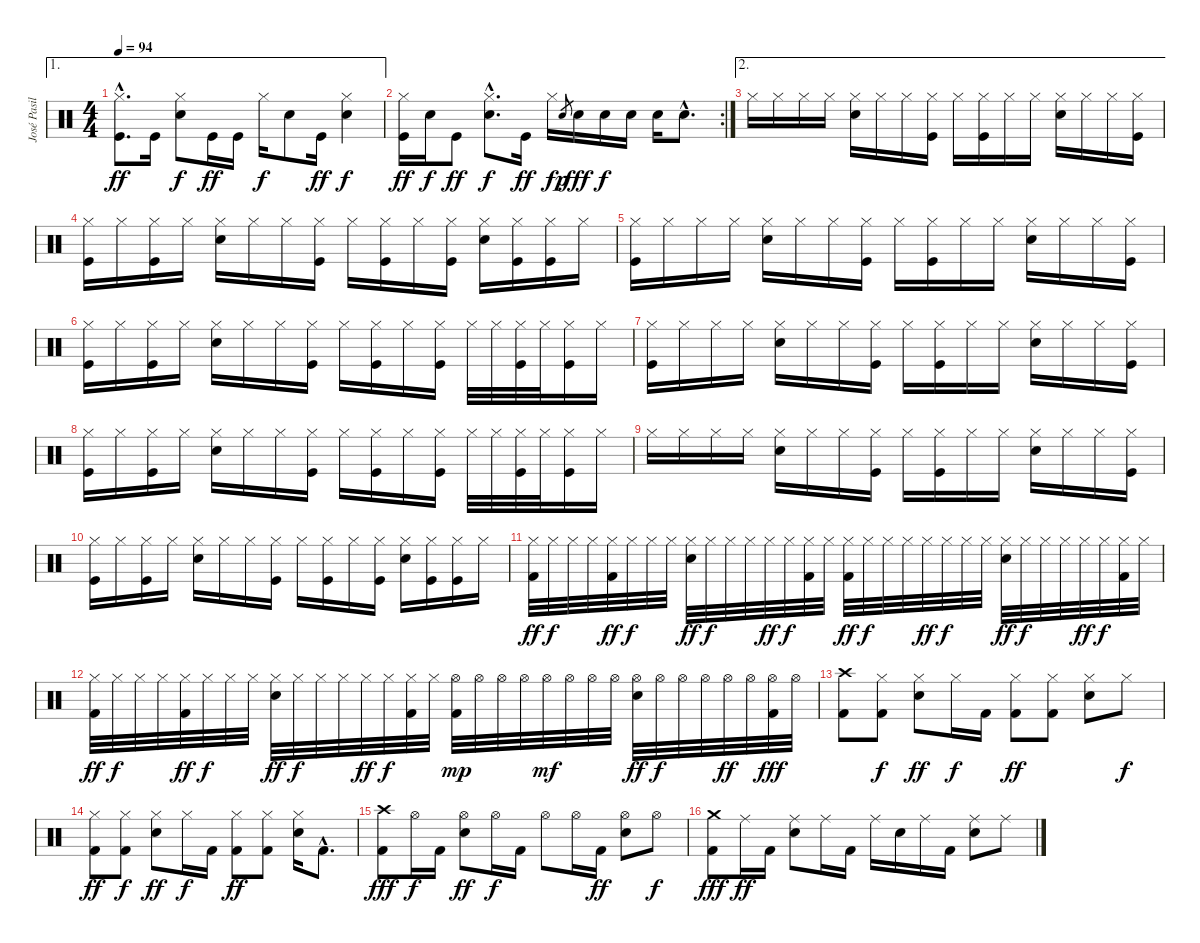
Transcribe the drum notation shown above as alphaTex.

\track ("José Pasillas II : Drums" "José Pasil") {instrument percussion}
\staff {score}
\articulation defaults
\ae 1
\ts (4 4)
\tempo 94
\clef neutral
\ks c
("Hi-Hat (closed)"{hac} "Kick (hit)"{hac}).8{d dy ff} "Kick (hit)".16 ("Hi-Hat (closed)" "Snare (hit) 2").8{dy f} "Kick (hit)".16{dy ff} "Kick (hit)".16 "Hi-Hat (closed)".16{dy f} "Snare (hit) 2".8 "Kick (hit)".16{dy ff} ("Hi-Hat (closed)" "Snare (hit) 2").4{dy f} |
\rc 2
("Hi-Hat (closed)" "Kick (hit)").16{dy ff} "Snare (hit) 2".16{dy f} "Kick (hit)".8{dy ff} ("Hi-Hat (closed)"{hac} "Snare (hit) 2"{hac}).8{d dy f} "Kick (hit)".16{dy ff} "Hi-Hat (closed)".16{dy f} "Electric Snare (hit)".8{gr dy p} "Electric Snare (hit)".16{dy fff} "Electric Snare (hit)".16{dy f} "Electric Snare (hit)".16 "Electric Snare (hit)".16 "Electric Snare (hit)"{hac}.8{d} |
\ae 2 "Hi-Hat (closed)".16 "Hi-Hat (closed)".16 "Hi-Hat (closed)".16 "Hi-Hat (closed)".16
("Hi-Hat (closed)" "Snare (hit) 2").16 "Hi-Hat (closed)".16 "Hi-Hat (closed)".16 ("Hi-Hat (closed)" "Kick (hit)").16 "Hi-Hat (closed)".16 ("Hi-Hat (closed)" "Kick (hit)").16 "Hi-Hat (closed)".16 "Hi-Hat (closed)".16 ("Hi-Hat (closed)" "Snare (hit) 2").16 "Hi-Hat (closed)".16 "Hi-Hat (closed)".16 ("Hi-Hat (closed)" "Kick (hit)").16 |
("Hi-Hat (closed)" "Kick (hit)").16 "Hi-Hat (closed)".16 ("Hi-Hat (closed)" "Kick (hit)").16 "Hi-Hat (closed)".16 ("Hi-Hat (closed)" "Snare (hit) 2").16 "Hi-Hat (closed)".16 "Hi-Hat (closed)".16 ("Hi-Hat (closed)" "Kick (hit)").16 "Hi-Hat (closed)".16 ("Hi-Hat (closed)" "Kick (hit)").16 "Hi-Hat (closed)".16 ("Hi-Hat (closed)" "Kick (hit)").16 ("Hi-Hat (closed)" "Snare (hit) 2").16 ("Hi-Hat (closed)" "Kick (hit)").16 ("Hi-Hat (closed)" "Kick (hit)").16 "Hi-Hat (closed)".16 |
("Hi-Hat (closed)" "Kick (hit)").16 "Hi-Hat (closed)".16 "Hi-Hat (closed)".16 "Hi-Hat (closed)".16 ("Hi-Hat (closed)" "Snare (hit) 2").16 "Hi-Hat (closed)".16 "Hi-Hat (closed)".16 ("Hi-Hat (closed)" "Kick (hit)").16 "Hi-Hat (closed)".16 ("Hi-Hat (closed)" "Kick (hit)").16 "Hi-Hat (closed)".16 "Hi-Hat (closed)".16 ("Hi-Hat (closed)" "Snare (hit) 2").16 "Hi-Hat (closed)".16 "Hi-Hat (closed)".16 ("Hi-Hat (closed)" "Kick (hit)").16 |
("Hi-Hat (closed)" "Kick (hit)").16 "Hi-Hat (closed)".16 ("Hi-Hat (closed)" "Kick (hit)").16 "Hi-Hat (closed)".16 ("Hi-Hat (closed)" "Snare (hit) 2").16 "Hi-Hat (closed)".16 "Hi-Hat (closed)".16 ("Hi-Hat (closed)" "Kick (hit)").16 "Hi-Hat (closed)".16 ("Hi-Hat (closed)" "Kick (hit)").16 "Hi-Hat (closed)".16 ("Hi-Hat (closed)" "Kick (hit)").16 "Hi-Hat (closed)".32 "Hi-Hat (closed)".32 ("Hi-Hat (closed)" "Kick (hit)").32 "Hi-Hat (closed)".32 ("Hi-Hat (closed)" "Kick (hit)").16 "Hi-Hat (closed)".16 |
("Hi-Hat (closed)" "Kick (hit)").16 "Hi-Hat (closed)".16 "Hi-Hat (closed)".16 "Hi-Hat (closed)".16 ("Hi-Hat (closed)" "Snare (hit) 2").16 "Hi-Hat (closed)".16 "Hi-Hat (closed)".16 ("Hi-Hat (closed)" "Kick (hit)").16 "Hi-Hat (closed)".16 ("Hi-Hat (closed)" "Kick (hit)").16 "Hi-Hat (closed)".16 "Hi-Hat (closed)".16 ("Hi-Hat (closed)" "Snare (hit) 2").16 "Hi-Hat (closed)".16 "Hi-Hat (closed)".16 ("Hi-Hat (closed)" "Kick (hit)").16 |
("Hi-Hat (closed)" "Kick (hit)").16 "Hi-Hat (closed)".16 ("Hi-Hat (closed)" "Kick (hit)").16 "Hi-Hat (closed)".16 ("Hi-Hat (closed)" "Snare (hit) 2").16 "Hi-Hat (closed)".16 "Hi-Hat (closed)".16 ("Hi-Hat (closed)" "Kick (hit)").16 "Hi-Hat (closed)".16 ("Hi-Hat (closed)" "Kick (hit)").16 "Hi-Hat (closed)".16 ("Hi-Hat (closed)" "Kick (hit)").16 "Hi-Hat (closed)".32 "Hi-Hat (closed)".32 ("Hi-Hat (closed)" "Kick (hit)").32 "Hi-Hat (closed)".32 ("Hi-Hat (closed)" "Kick (hit)").16 "Hi-Hat (closed)".16 |
"Hi-Hat (closed)".16 "Hi-Hat (closed)".16 "Hi-Hat (closed)".16 "Hi-Hat (closed)".16 ("Hi-Hat (closed)" "Snare (hit) 2").16 "Hi-Hat (closed)".16 "Hi-Hat (closed)".16 ("Hi-Hat (closed)" "Kick (hit)").16 "Hi-Hat (closed)".16 ("Hi-Hat (closed)" "Kick (hit)").16 "Hi-Hat (closed)".16 "Hi-Hat (closed)".16 ("Hi-Hat (closed)" "Snare (hit) 2").16 "Hi-Hat (closed)".16 "Hi-Hat (closed)".16 ("Hi-Hat (closed)" "Kick (hit)").16 |
("Hi-Hat (closed)" "Kick (hit)").16 "Hi-Hat (closed)".16 ("Hi-Hat (closed)" "Kick (hit)").16 "Hi-Hat (closed)".16 ("Hi-Hat (closed)" "Snare (hit) 2").16 "Hi-Hat (closed)".16 "Hi-Hat (closed)".16 ("Hi-Hat (closed)" "Kick (hit)").16 "Hi-Hat (closed)".16 ("Hi-Hat (closed)" "Kick (hit)").16 "Hi-Hat (closed)".16 ("Hi-Hat (closed)" "Kick (hit)").16 ("Hi-Hat (closed)" "Snare (hit) 2").16 ("Hi-Hat (closed)" "Kick (hit)").16 ("Hi-Hat (closed)" "Kick (hit)").16 "Hi-Hat (closed)".16 |
("Hi-Hat (closed)" "Kick (hit) 2").32{dy ff} "Hi-Hat (closed)".32{dy f} "Hi-Hat (closed)".32 "Hi-Hat (closed)".32 ("Hi-Hat (closed)" "Kick (hit) 2").32{dy ff} "Hi-Hat (closed)".32{dy f} "Hi-Hat (closed)".32 "Hi-Hat (closed)".32 ("Hi-Hat (closed)" "Electric Snare (hit)").32{dy ff} "Hi-Hat (closed)".32{dy f} "Hi-Hat (closed)".32 "Hi-Hat (closed)".32 "Hi-Hat (closed)".32{dy ff} "Hi-Hat (closed)".32{dy f} ("Hi-Hat (closed)" "Kick (hit) 2").32 "Hi-Hat (closed)".32 ("Hi-Hat (closed)" "Kick (hit) 2").32{dy ff} "Hi-Hat (closed)".32{dy f} "Hi-Hat (closed)".32 "Hi-Hat (closed)".32 "Hi-Hat (closed)".32{dy ff} "Hi-Hat (closed)".32{dy f} "Hi-Hat (closed)".32 "Hi-Hat (closed)".32 ("Hi-Hat (closed)" "Electric Snare (hit)").32{dy ff} "Hi-Hat (closed)".32{dy f} "Hi-Hat (closed)".32 "Hi-Hat (closed)".32 "Hi-Hat (closed)".32{dy ff} "Hi-Hat (closed)".32{dy f} ("Hi-Hat (closed)" "Kick (hit) 2").32 "Hi-Hat (closed)".32 |
("Hi-Hat (closed)" "Kick (hit) 2").32{dy ff} "Hi-Hat (closed)".32{dy f} "Hi-Hat (closed)".32 "Hi-Hat (closed)".32 ("Hi-Hat (closed)" "Kick (hit) 2").32{dy ff} "Hi-Hat (closed)".32{dy f} "Hi-Hat (closed)".32 "Hi-Hat (closed)".32 ("Hi-Hat (closed)" "Electric Snare (hit)").32{dy ff} "Hi-Hat (closed)".32{dy f} "Hi-Hat (closed)".32 "Hi-Hat (closed)".32 "Hi-Hat (closed)".32{dy ff} "Hi-Hat (closed)".32{dy f} ("Hi-Hat (closed)" "Kick (hit) 2").32 "Hi-Hat (closed)".32 ("Hi-Hat (open)" "Kick (hit) 2").32{dy mp} "Hi-Hat (open)".32 "Hi-Hat (open)".32 "Hi-Hat (open)".32 "Hi-Hat (open)".32{dy mf} "Hi-Hat (open)".32 "Hi-Hat (open)".32 "Hi-Hat (open)".32 ("Hi-Hat (open)" "Electric Snare (hit)").32{dy ff} "Hi-Hat (open)".32{dy f} "Hi-Hat (open)".32 "Hi-Hat (open)".32 "Hi-Hat (open)".32{dy ff} "Hi-Hat (open)".32 ("Hi-Hat (open)" "Kick (hit) 2").32{dy fff} "Hi-Hat (open)".32 |
("Crash high (hit)" "Kick (hit) 2").8 ("Hi-Hat (closed)" "Kick (hit) 2").8{dy f} ("Hi-Hat (closed)" "Electric Snare (hit)").8{dy ff} "Hi-Hat (closed)".16{dy f} "Kick (hit) 2".16 ("Hi-Hat (closed)" "Kick (hit) 2").8{dy ff} ("Hi-Hat (closed)" "Kick (hit) 2").8 ("Hi-Hat (closed)" "Electric Snare (hit)").8 "Hi-Hat (closed)".8{dy f} |
("Hi-Hat (closed)" "Kick (hit) 2").8{dy ff} ("Hi-Hat (closed)" "Kick (hit) 2").8{dy f} ("Hi-Hat (closed)" "Electric Snare (hit)").8{dy ff} "Hi-Hat (closed)".16{dy f} "Kick (hit) 2".16 ("Hi-Hat (closed)" "Kick (hit) 2").8{dy ff} ("Hi-Hat (closed)" "Kick (hit) 2").8 ("Hi-Hat (closed)" "Electric Snare (hit)").16 "Kick (hit) 2"{hac}.8{d} |
("Crash high (hit)" "Kick (hit) 2").8{dy fff} "Hi-Hat (open)".16{dy f} "Kick (hit) 2".16 ("Hi-Hat (open)" "Electric Snare (hit)").8{dy ff} "Hi-Hat (open)".16{dy f} "Kick (hit) 2".16 "Hi-Hat (open)".8 "Hi-Hat (open)".16 "Kick (hit) 2".16{dy ff} ("Hi-Hat (open)" "Electric Snare (hit)").8 "Hi-Hat (open)".8{dy f} |
("Crash medium (hit)" "Kick (hit) 2").8{dy fff} "Ride (middle)".16{dy ff} "Kick (hit) 2".16 ("Ride (middle)" "Electric Snare (hit)").8 "Ride (middle)".16 "Kick (hit) 2".16 "Ride (middle)".16 "Electric Snare (hit)".16 "Ride (middle)".16 "Kick (hit) 2".16 ("Ride (middle)" "Electric Snare (hit)").8 "Ride (middle)".8
